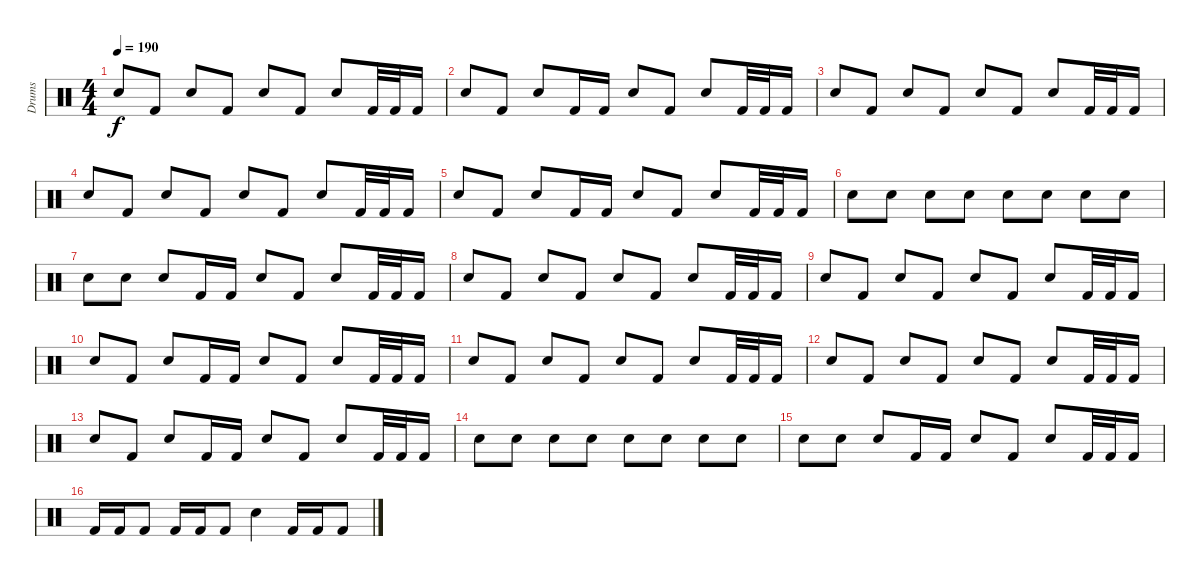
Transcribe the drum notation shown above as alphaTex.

\track ("Drums" "Drums") {instrument percussion}
\staff {score}
\articulation defaults
\ts (4 4)
\tempo 190
\clef neutral
\ks c "Snare (hit) 2".8{dy f} "Kick (hit) 2".8 "Snare (hit) 2".8 "Kick (hit) 2".8 "Snare (hit) 2".8 "Kick (hit) 2".8 "Snare (hit) 2".8 "Kick (hit) 2".32 "Kick (hit) 2".32 "Kick (hit) 2".16
|
"Snare (hit) 2".8 "Kick (hit) 2".8 "Snare (hit) 2".8 "Kick (hit) 2".16 "Kick (hit) 2".16 "Snare (hit) 2".8 "Kick (hit) 2".8 "Snare (hit) 2".8 "Kick (hit) 2".32 "Kick (hit) 2".32 "Kick (hit) 2".16 |
"Snare (hit) 2".8 "Kick (hit) 2".8 "Snare (hit) 2".8 "Kick (hit) 2".8 "Snare (hit) 2".8 "Kick (hit) 2".8 "Snare (hit) 2".8 "Kick (hit) 2".32 "Kick (hit) 2".32 "Kick (hit) 2".16 |
"Snare (hit) 2".8 "Kick (hit) 2".8 "Snare (hit) 2".8 "Kick (hit) 2".8 "Snare (hit) 2".8 "Kick (hit) 2".8 "Snare (hit) 2".8 "Kick (hit) 2".32 "Kick (hit) 2".32 "Kick (hit) 2".16 |
"Snare (hit) 2".8 "Kick (hit) 2".8 "Snare (hit) 2".8 "Kick (hit) 2".16 "Kick (hit) 2".16 "Snare (hit) 2".8 "Kick (hit) 2".8 "Snare (hit) 2".8 "Kick (hit) 2".32 "Kick (hit) 2".32 "Kick (hit) 2".16 |
"Snare (hit) 2".8 "Snare (hit) 2".8 "Snare (hit) 2".8 "Snare (hit) 2".8 "Snare (hit) 2".8 "Snare (hit) 2".8 "Snare (hit) 2".8 "Snare (hit) 2".8 |
"Snare (hit) 2".8 "Snare (hit) 2".8 "Snare (hit) 2".8 "Kick (hit) 2".16 "Kick (hit) 2".16 "Snare (hit) 2".8 "Kick (hit) 2".8 "Snare (hit) 2".8 "Kick (hit) 2".32 "Kick (hit) 2".32 "Kick (hit) 2".16 |
"Snare (hit) 2".8 "Kick (hit) 2".8 "Snare (hit) 2".8 "Kick (hit) 2".8 "Snare (hit) 2".8 "Kick (hit) 2".8 "Snare (hit) 2".8 "Kick (hit) 2".32 "Kick (hit) 2".32 "Kick (hit) 2".16 |
"Snare (hit) 2".8 "Kick (hit) 2".8 "Snare (hit) 2".8 "Kick (hit) 2".8 "Snare (hit) 2".8 "Kick (hit) 2".8 "Snare (hit) 2".8 "Kick (hit) 2".32 "Kick (hit) 2".32 "Kick (hit) 2".16 |
"Snare (hit) 2".8 "Kick (hit) 2".8 "Snare (hit) 2".8 "Kick (hit) 2".16 "Kick (hit) 2".16 "Snare (hit) 2".8 "Kick (hit) 2".8 "Snare (hit) 2".8 "Kick (hit) 2".32 "Kick (hit) 2".32 "Kick (hit) 2".16 |
"Snare (hit) 2".8 "Kick (hit) 2".8 "Snare (hit) 2".8 "Kick (hit) 2".8 "Snare (hit) 2".8 "Kick (hit) 2".8 "Snare (hit) 2".8 "Kick (hit) 2".32 "Kick (hit) 2".32 "Kick (hit) 2".16 |
"Snare (hit) 2".8 "Kick (hit) 2".8 "Snare (hit) 2".8 "Kick (hit) 2".8 "Snare (hit) 2".8 "Kick (hit) 2".8 "Snare (hit) 2".8 "Kick (hit) 2".32 "Kick (hit) 2".32 "Kick (hit) 2".16 |
"Snare (hit) 2".8 "Kick (hit) 2".8 "Snare (hit) 2".8 "Kick (hit) 2".16 "Kick (hit) 2".16 "Snare (hit) 2".8 "Kick (hit) 2".8 "Snare (hit) 2".8 "Kick (hit) 2".32 "Kick (hit) 2".32 "Kick (hit) 2".16 |
"Snare (hit) 2".8 "Snare (hit) 2".8 "Snare (hit) 2".8 "Snare (hit) 2".8 "Snare (hit) 2".8 "Snare (hit) 2".8 "Snare (hit) 2".8 "Snare (hit) 2".8 |
"Snare (hit) 2".8 "Snare (hit) 2".8 "Snare (hit) 2".8 "Kick (hit) 2".16 "Kick (hit) 2".16 "Snare (hit) 2".8 "Kick (hit) 2".8 "Snare (hit) 2".8 "Kick (hit) 2".32 "Kick (hit) 2".32 "Kick (hit) 2".16 |
"Kick (hit) 2".16 "Kick (hit) 2".16 "Kick (hit) 2".8 "Kick (hit) 2".16 "Kick (hit) 2".16 "Kick (hit) 2".8 "Snare (hit) 2".4 "Kick (hit) 2".16 "Kick (hit) 2".16 "Kick (hit) 2".8
